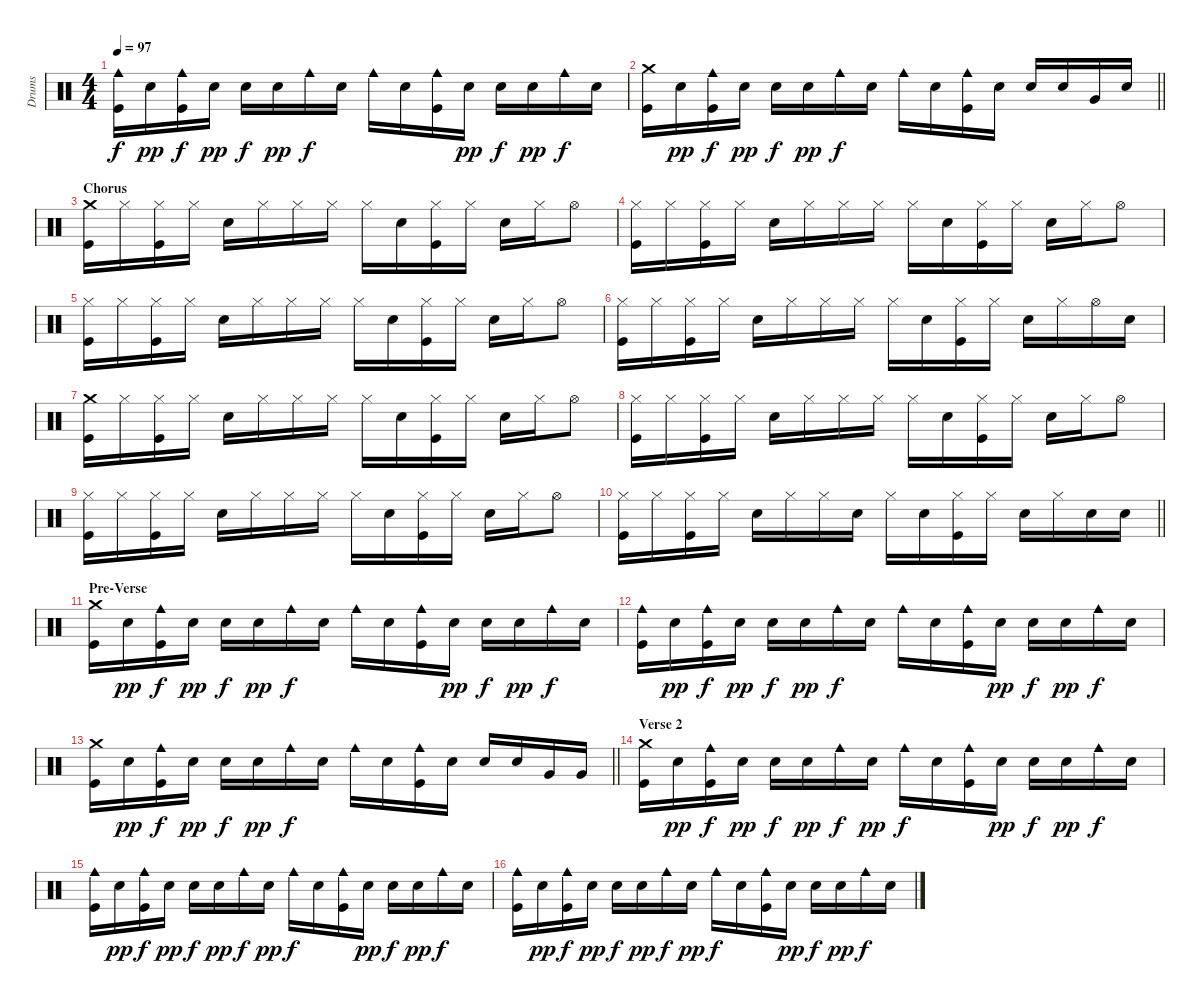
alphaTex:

\track ("Drums" "Drums") {instrument percussion}
\staff {score}
\articulation defaults
\ts (4 4)
\tempo 97
\clef neutral
\ks c
("Cowbell medium (hit)" "Kick (hit)").16{dy f} "Electric Snare (hit)".16{dy pp} ("Cowbell medium (hit)" "Kick (hit)").16{dy f} "Electric Snare (hit)".16{dy pp} "Electric Snare (hit)".16{dy f} "Electric Snare (hit)".16{dy pp} "Cowbell medium (hit)".16{dy f} "Electric Snare (hit)".16 "Cowbell medium (hit)".16 "Electric Snare (hit)".16 ("Cowbell medium (hit)" "Kick (hit)").16 "Electric Snare (hit)".16{dy pp} "Electric Snare (hit)".16{dy f} "Electric Snare (hit)".16{dy pp} "Cowbell medium (hit)".16{dy f} "Electric Snare (hit)".16 |
\barLineRight lightlight
("Crash medium (hit)" "Kick (hit)").16 "Electric Snare (hit)".16{dy pp} ("Cowbell medium (hit)" "Kick (hit)").16{dy f} "Electric Snare (hit)".16{dy pp} "Electric Snare (hit)".16{dy f} "Electric Snare (hit)".16{dy pp} "Cowbell medium (hit)".16{dy f} "Electric Snare (hit)".16 "Cowbell medium (hit)".16 "Electric Snare (hit)".16 ("Cowbell medium (hit)" "Kick (hit)").16 "Electric Snare (hit)".16 "Electric Snare (hit)".16 "Electric Snare (hit)".16 "Very Low Tom (hit)".16 "Electric Snare (hit)".16 |
\section ("" "Chorus")
("Crash medium (hit)" "Kick (hit)").16 "Hi-Hat (closed)".16 ("Hi-Hat (closed)" "Kick (hit)").16 "Hi-Hat (closed)".16 "Electric Snare (hit)".16 "Hi-Hat (closed)".16 "Hi-Hat (closed)".16 "Hi-Hat (closed)".16 "Hi-Hat (closed)".16 "Electric Snare (hit)".16 ("Hi-Hat (closed)" "Kick (hit)").16 "Hi-Hat (closed)".16 "Electric Snare (hit)".16 "Hi-Hat (closed)".16 "Hi-Hat (open)".8 |
("Hi-Hat (closed)" "Kick (hit)").16 "Hi-Hat (closed)".16 ("Hi-Hat (closed)" "Kick (hit)").16 "Hi-Hat (closed)".16 "Electric Snare (hit)".16 "Hi-Hat (closed)".16 "Hi-Hat (closed)".16 "Hi-Hat (closed)".16 "Hi-Hat (closed)".16 "Electric Snare (hit)".16 ("Hi-Hat (closed)" "Kick (hit)").16 "Hi-Hat (closed)".16 "Electric Snare (hit)".16 "Hi-Hat (closed)".16 "Hi-Hat (open)".8 |
("Hi-Hat (closed)" "Kick (hit)").16 "Hi-Hat (closed)".16 ("Hi-Hat (closed)" "Kick (hit)").16 "Hi-Hat (closed)".16 "Electric Snare (hit)".16 "Hi-Hat (closed)".16 "Hi-Hat (closed)".16 "Hi-Hat (closed)".16 "Hi-Hat (closed)".16 "Electric Snare (hit)".16 ("Hi-Hat (closed)" "Kick (hit)").16 "Hi-Hat (closed)".16 "Electric Snare (hit)".16 "Hi-Hat (closed)".16 "Hi-Hat (open)".8 |
("Hi-Hat (closed)" "Kick (hit)").16 "Hi-Hat (closed)".16 ("Hi-Hat (closed)" "Kick (hit)").16 "Hi-Hat (closed)".16 "Electric Snare (hit)".16 "Hi-Hat (closed)".16 "Hi-Hat (closed)".16 "Hi-Hat (closed)".16 "Hi-Hat (closed)".16 "Electric Snare (hit)".16 ("Hi-Hat (closed)" "Kick (hit)").16 "Hi-Hat (closed)".16 "Electric Snare (hit)".16 "Hi-Hat (closed)".16 "Hi-Hat (open)".16 "Electric Snare (hit)".16 |
("Crash medium (hit)" "Kick (hit)").16 "Hi-Hat (closed)".16 ("Hi-Hat (closed)" "Kick (hit)").16 "Hi-Hat (closed)".16 "Electric Snare (hit)".16 "Hi-Hat (closed)".16 "Hi-Hat (closed)".16 "Hi-Hat (closed)".16 "Hi-Hat (closed)".16 "Electric Snare (hit)".16 ("Hi-Hat (closed)" "Kick (hit)").16 "Hi-Hat (closed)".16 "Electric Snare (hit)".16 "Hi-Hat (closed)".16 "Hi-Hat (open)".8 |
("Hi-Hat (closed)" "Kick (hit)").16 "Hi-Hat (closed)".16 ("Hi-Hat (closed)" "Kick (hit)").16 "Hi-Hat (closed)".16 "Electric Snare (hit)".16 "Hi-Hat (closed)".16 "Hi-Hat (closed)".16 "Hi-Hat (closed)".16 "Hi-Hat (closed)".16 "Electric Snare (hit)".16 ("Hi-Hat (closed)" "Kick (hit)").16 "Hi-Hat (closed)".16 "Electric Snare (hit)".16 "Hi-Hat (closed)".16 "Hi-Hat (open)".8 |
("Hi-Hat (closed)" "Kick (hit)").16 "Hi-Hat (closed)".16 ("Hi-Hat (closed)" "Kick (hit)").16 "Hi-Hat (closed)".16 "Electric Snare (hit)".16 "Hi-Hat (closed)".16 "Hi-Hat (closed)".16 "Hi-Hat (closed)".16 "Hi-Hat (closed)".16 "Electric Snare (hit)".16 ("Hi-Hat (closed)" "Kick (hit)").16 "Hi-Hat (closed)".16 "Electric Snare (hit)".16 "Hi-Hat (closed)".16 "Hi-Hat (open)".8 |
\barLineRight lightlight
("Hi-Hat (closed)" "Kick (hit)").16 "Hi-Hat (closed)".16 ("Hi-Hat (closed)" "Kick (hit)").16 "Hi-Hat (closed)".16 "Electric Snare (hit)".16 "Hi-Hat (closed)".16 "Hi-Hat (closed)".16 "Electric Snare (hit)".16 "Hi-Hat (closed)".16 "Electric Snare (hit)".16 ("Hi-Hat (closed)" "Kick (hit)").16 "Hi-Hat (closed)".16 "Electric Snare (hit)".16 "Hi-Hat (closed)".16 "Electric Snare (hit)".16 "Electric Snare (hit)".16 |
\section ("" "Pre-Verse")
("Crash medium (hit)" "Kick (hit)").16 "Electric Snare (hit)".16{dy pp} ("Cowbell medium (hit)" "Kick (hit)").16{dy f} "Electric Snare (hit)".16{dy pp} "Electric Snare (hit)".16{dy f} "Electric Snare (hit)".16{dy pp} "Cowbell medium (hit)".16{dy f} "Electric Snare (hit)".16 "Cowbell medium (hit)".16 "Electric Snare (hit)".16 ("Cowbell medium (hit)" "Kick (hit)").16 "Electric Snare (hit)".16{dy pp} "Electric Snare (hit)".16{dy f} "Electric Snare (hit)".16{dy pp} "Cowbell medium (hit)".16{dy f} "Electric Snare (hit)".16 |
("Cowbell medium (hit)" "Kick (hit)").16 "Electric Snare (hit)".16{dy pp} ("Cowbell medium (hit)" "Kick (hit)").16{dy f} "Electric Snare (hit)".16{dy pp} "Electric Snare (hit)".16{dy f} "Electric Snare (hit)".16{dy pp} "Cowbell medium (hit)".16{dy f} "Electric Snare (hit)".16 "Cowbell medium (hit)".16 "Electric Snare (hit)".16 ("Cowbell medium (hit)" "Kick (hit)").16 "Electric Snare (hit)".16{dy pp} "Electric Snare (hit)".16{dy f} "Electric Snare (hit)".16{dy pp} "Cowbell medium (hit)".16{dy f} "Electric Snare (hit)".16 |
\barLineRight lightlight
("Crash medium (hit)" "Kick (hit)").16 "Electric Snare (hit)".16{dy pp} ("Cowbell medium (hit)" "Kick (hit)").16{dy f} "Electric Snare (hit)".16{dy pp} "Electric Snare (hit)".16{dy f} "Electric Snare (hit)".16{dy pp} "Cowbell medium (hit)".16{dy f} "Electric Snare (hit)".16 "Cowbell medium (hit)".16 "Electric Snare (hit)".16 ("Cowbell medium (hit)" "Kick (hit)").16 "Electric Snare (hit)".16 "Electric Snare (hit)".16 "Electric Snare (hit)".16 "Very Low Tom (hit)".16 "Very Low Tom (hit)".16 |
\section ("" "Verse 2")
("Crash medium (hit)" "Kick (hit)").16 "Electric Snare (hit)".16{dy pp} ("Cowbell medium (hit)" "Kick (hit)").16{dy f} "Electric Snare (hit)".16{dy pp} "Electric Snare (hit)".16{dy f} "Electric Snare (hit)".16{dy pp} "Cowbell medium (hit)".16{dy f} "Electric Snare (hit)".16{dy pp} "Cowbell medium (hit)".16{dy f} "Electric Snare (hit)".16 ("Cowbell medium (hit)" "Kick (hit)").16 "Electric Snare (hit)".16{dy pp} "Electric Snare (hit)".16{dy f} "Electric Snare (hit)".16{dy pp} "Cowbell medium (hit)".16{dy f} "Electric Snare (hit)".16 |
("Cowbell medium (hit)" "Kick (hit)").16 "Electric Snare (hit)".16{dy pp} ("Cowbell medium (hit)" "Kick (hit)").16{dy f} "Electric Snare (hit)".16{dy pp} "Electric Snare (hit)".16{dy f} "Electric Snare (hit)".16{dy pp} "Cowbell medium (hit)".16{dy f} "Electric Snare (hit)".16{dy pp} "Cowbell medium (hit)".16{dy f} "Electric Snare (hit)".16 ("Cowbell medium (hit)" "Kick (hit)").16 "Electric Snare (hit)".16{dy pp} "Electric Snare (hit)".16{dy f} "Electric Snare (hit)".16{dy pp} "Cowbell medium (hit)".16{dy f} "Electric Snare (hit)".16 |
("Cowbell medium (hit)" "Kick (hit)").16 "Electric Snare (hit)".16{dy pp} ("Cowbell medium (hit)" "Kick (hit)").16{dy f} "Electric Snare (hit)".16{dy pp} "Electric Snare (hit)".16{dy f} "Electric Snare (hit)".16{dy pp} "Cowbell medium (hit)".16{dy f} "Electric Snare (hit)".16{dy pp} "Cowbell medium (hit)".16{dy f} "Electric Snare (hit)".16 ("Cowbell medium (hit)" "Kick (hit)").16 "Electric Snare (hit)".16{dy pp} "Electric Snare (hit)".16{dy f} "Electric Snare (hit)".16{dy pp} "Cowbell medium (hit)".16{dy f} "Electric Snare (hit)".16
